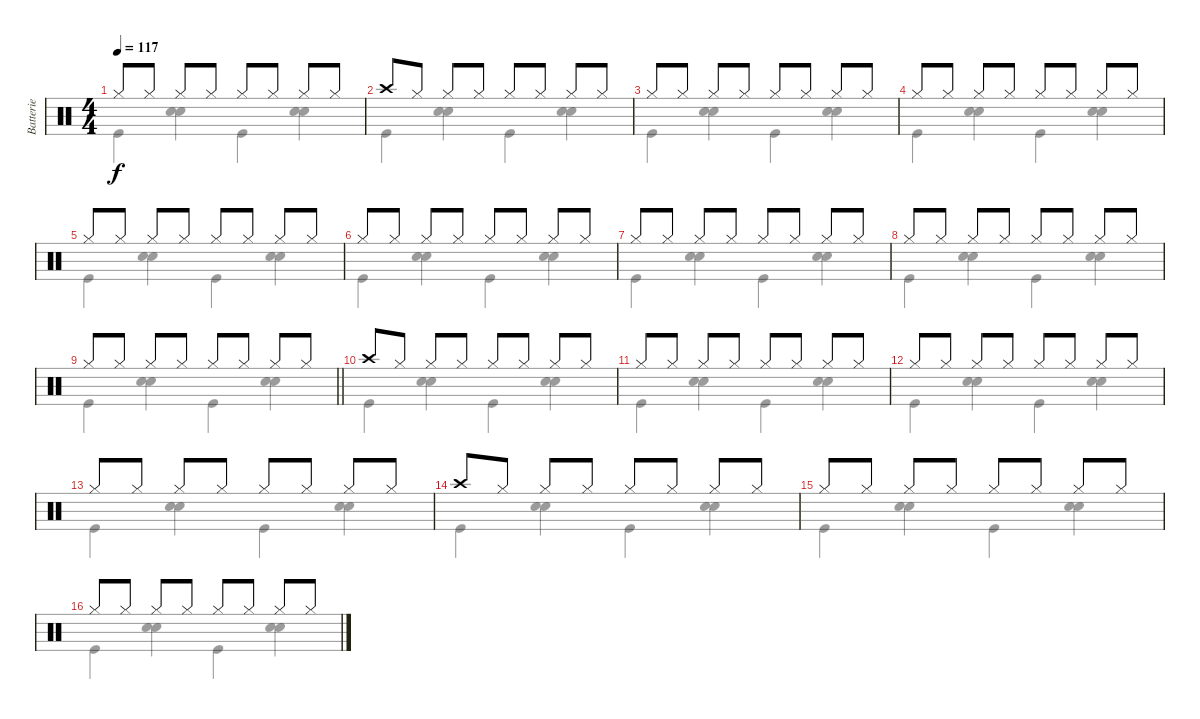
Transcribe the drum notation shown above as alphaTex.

\track ("Batterie" "Batterie") {instrument percussion}
\staff {score}
\articulation defaults
\voice
\ts (4 4)
\tempo 117
\clef neutral
\ks c "Hi-Hat (closed)".8{dy f} "Hi-Hat (closed)".8 "Hi-Hat (closed)".8 "Hi-Hat (closed)".8 "Hi-Hat (closed)".8 "Hi-Hat (closed)".8 "Hi-Hat (closed)".8 "Hi-Hat (closed)".8
|
"Crash high (hit)".8 "Hi-Hat (closed)".8 "Hi-Hat (closed)".8 "Hi-Hat (closed)".8 "Hi-Hat (closed)".8 "Hi-Hat (closed)".8 "Hi-Hat (closed)".8 "Hi-Hat (closed)".8 |
"Hi-Hat (closed)".8 "Hi-Hat (closed)".8 "Hi-Hat (closed)".8 "Hi-Hat (closed)".8 "Hi-Hat (closed)".8 "Hi-Hat (closed)".8 "Hi-Hat (closed)".8 "Hi-Hat (closed)".8 |
"Hi-Hat (closed)".8 "Hi-Hat (closed)".8 "Hi-Hat (closed)".8 "Hi-Hat (closed)".8 "Hi-Hat (closed)".8 "Hi-Hat (closed)".8 "Hi-Hat (closed)".8 "Hi-Hat (closed)".8 |
"Hi-Hat (closed)".8 "Hi-Hat (closed)".8 "Hi-Hat (closed)".8 "Hi-Hat (closed)".8 "Hi-Hat (closed)".8 "Hi-Hat (closed)".8 "Hi-Hat (closed)".8 "Hi-Hat (closed)".8 |
"Hi-Hat (closed)".8 "Hi-Hat (closed)".8 "Hi-Hat (closed)".8 "Hi-Hat (closed)".8 "Hi-Hat (closed)".8 "Hi-Hat (closed)".8 "Hi-Hat (closed)".8 "Hi-Hat (closed)".8 |
"Hi-Hat (closed)".8 "Hi-Hat (closed)".8 "Hi-Hat (closed)".8 "Hi-Hat (closed)".8 "Hi-Hat (closed)".8 "Hi-Hat (closed)".8 "Hi-Hat (closed)".8 "Hi-Hat (closed)".8 |
"Hi-Hat (closed)".8 "Hi-Hat (closed)".8 "Hi-Hat (closed)".8 "Hi-Hat (closed)".8 "Hi-Hat (closed)".8 "Hi-Hat (closed)".8 "Hi-Hat (closed)".8 "Hi-Hat (closed)".8 |
\barLineRight lightlight "Hi-Hat (closed)".8 "Hi-Hat (closed)".8 "Hi-Hat (closed)".8 "Hi-Hat (closed)".8 "Hi-Hat (closed)".8 "Hi-Hat (closed)".8 "Hi-Hat (closed)".8 "Hi-Hat (closed)".8
|
"Crash high (hit)".8 "Hi-Hat (closed)".8 "Hi-Hat (closed)".8 "Hi-Hat (closed)".8 "Hi-Hat (closed)".8 "Hi-Hat (closed)".8 "Hi-Hat (closed)".8 "Hi-Hat (closed)".8 |
"Hi-Hat (closed)".8 "Hi-Hat (closed)".8 "Hi-Hat (closed)".8 "Hi-Hat (closed)".8 "Hi-Hat (closed)".8 "Hi-Hat (closed)".8 "Hi-Hat (closed)".8 "Hi-Hat (closed)".8 |
"Hi-Hat (closed)".8 "Hi-Hat (closed)".8 "Hi-Hat (closed)".8 "Hi-Hat (closed)".8 "Hi-Hat (closed)".8 "Hi-Hat (closed)".8 "Hi-Hat (closed)".8 "Hi-Hat (closed)".8 |
"Hi-Hat (closed)".8 "Hi-Hat (closed)".8 "Hi-Hat (closed)".8 "Hi-Hat (closed)".8 "Hi-Hat (closed)".8 "Hi-Hat (closed)".8 "Hi-Hat (closed)".8 "Hi-Hat (closed)".8 |
"Crash high (hit)".8 "Hi-Hat (closed)".8 "Hi-Hat (closed)".8 "Hi-Hat (closed)".8 "Hi-Hat (closed)".8 "Hi-Hat (closed)".8 "Hi-Hat (closed)".8 "Hi-Hat (closed)".8 |
"Hi-Hat (closed)".8 "Hi-Hat (closed)".8 "Hi-Hat (closed)".8 "Hi-Hat (closed)".8 "Hi-Hat (closed)".8 "Hi-Hat (closed)".8 "Hi-Hat (closed)".8 "Hi-Hat (closed)".8 |
"Hi-Hat (closed)".8 "Hi-Hat (closed)".8 "Hi-Hat (closed)".8 "Hi-Hat (closed)".8 "Hi-Hat (closed)".8 "Hi-Hat (closed)".8 "Hi-Hat (closed)".8 "Hi-Hat (closed)".8
\voice
\clef neutral
\ottava regular
\simile none
\ks c "Kick (hit)".4{dy f}
("Hand Clap (hit)" "Snare (hit) 2").4 "Kick (hit)".4 ("Hand Clap (hit)" "Snare (hit) 2").4 |
"Kick (hit)".4 ("Hand Clap (hit)" "Snare (hit) 2").4 "Kick (hit)".4 ("Hand Clap (hit)" "Snare (hit) 2").4 |
"Kick (hit)".4 ("Hand Clap (hit)" "Snare (hit) 2").4 "Kick (hit)".4 ("Hand Clap (hit)" "Snare (hit) 2").4 |
"Kick (hit)".4 ("Hand Clap (hit)" "Snare (hit) 2").4 "Kick (hit)".4 ("Hand Clap (hit)" "Snare (hit) 2").4 |
"Kick (hit)".4 ("Hand Clap (hit)" "Snare (hit) 2").4 "Kick (hit)".4 ("Hand Clap (hit)" "Snare (hit) 2").4 |
"Kick (hit)".4 ("Hand Clap (hit)" "Snare (hit) 2").4 "Kick (hit)".4 ("Hand Clap (hit)" "Snare (hit) 2").4 |
"Kick (hit)".4 ("Hand Clap (hit)" "Snare (hit) 2").4 "Kick (hit)".4 ("Hand Clap (hit)" "Snare (hit) 2").4 |
"Kick (hit)".4 ("Hand Clap (hit)" "Snare (hit) 2").4 "Kick (hit)".4 ("Hand Clap (hit)" "Snare (hit) 2").4 |
\barLineRight lightlight "Kick (hit)".4
("Hand Clap (hit)" "Snare (hit) 2").4 "Kick (hit)".4 ("Hand Clap (hit)" "Snare (hit) 2").4 |
"Kick (hit)".4 ("Hand Clap (hit)" "Snare (hit) 2").4 "Kick (hit)".4 ("Hand Clap (hit)" "Snare (hit) 2").4 |
"Kick (hit)".4 ("Hand Clap (hit)" "Snare (hit) 2").4 "Kick (hit)".4 ("Hand Clap (hit)" "Snare (hit) 2").4 |
"Kick (hit)".4 ("Hand Clap (hit)" "Snare (hit) 2").4 "Kick (hit)".4 ("Hand Clap (hit)" "Snare (hit) 2").4 |
"Kick (hit)".4 ("Hand Clap (hit)" "Snare (hit) 2").4 "Kick (hit)".4 ("Hand Clap (hit)" "Snare (hit) 2").4 |
"Kick (hit)".4 ("Hand Clap (hit)" "Snare (hit) 2").4 "Kick (hit)".4 ("Hand Clap (hit)" "Snare (hit) 2").4 |
"Kick (hit)".4 ("Hand Clap (hit)" "Snare (hit) 2").4 "Kick (hit)".4 ("Hand Clap (hit)" "Snare (hit) 2").4 |
"Kick (hit)".4 ("Hand Clap (hit)" "Snare (hit) 2").4 "Kick (hit)".4 ("Hand Clap (hit)" "Snare (hit) 2").4
